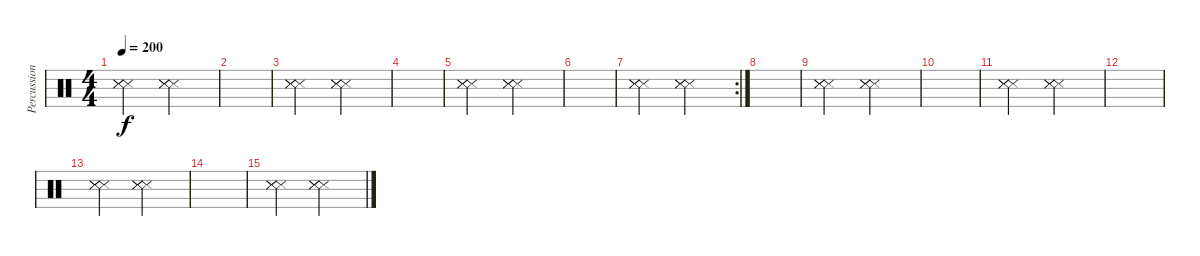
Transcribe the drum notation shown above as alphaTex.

\track ("Percussions" "Percussion") {instrument percussion}
\staff {score}
\articulation defaults
\ts (4 4)
\tempo 200
\clef neutral
\ks c
("Snare (side stick) 3" "Snare (side stick) 3" "Snare (side stick) 3").2{dy f} ("Snare (side stick) 3" "Snare (side stick) 3" "Snare (side stick) 3").2 |
|
("Snare (side stick) 3" "Snare (side stick) 3" "Snare (side stick) 3").2 ("Snare (side stick) 3" "Snare (side stick) 3" "Snare (side stick) 3").2 |
|
("Snare (side stick) 3" "Snare (side stick) 3" "Snare (side stick) 3").2 ("Snare (side stick) 3" "Snare (side stick) 3" "Snare (side stick) 3").2 |
|
\rc 2
("Snare (side stick) 3" "Snare (side stick) 3" "Snare (side stick) 3").2 ("Snare (side stick) 3" "Snare (side stick) 3" "Snare (side stick) 3").2 |
|
("Snare (side stick) 3" "Snare (side stick) 3" "Snare (side stick) 3").2 ("Snare (side stick) 3" "Snare (side stick) 3" "Snare (side stick) 3").2 |
|
("Snare (side stick) 3" "Snare (side stick) 3" "Snare (side stick) 3").2 ("Snare (side stick) 3" "Snare (side stick) 3" "Snare (side stick) 3").2 |
|
("Snare (side stick) 3" "Snare (side stick) 3" "Snare (side stick) 3").2 ("Snare (side stick) 3" "Snare (side stick) 3" "Snare (side stick) 3").2 |
|
("Snare (side stick) 3" "Snare (side stick) 3" "Snare (side stick) 3").2 ("Snare (side stick) 3" "Snare (side stick) 3" "Snare (side stick) 3").2
